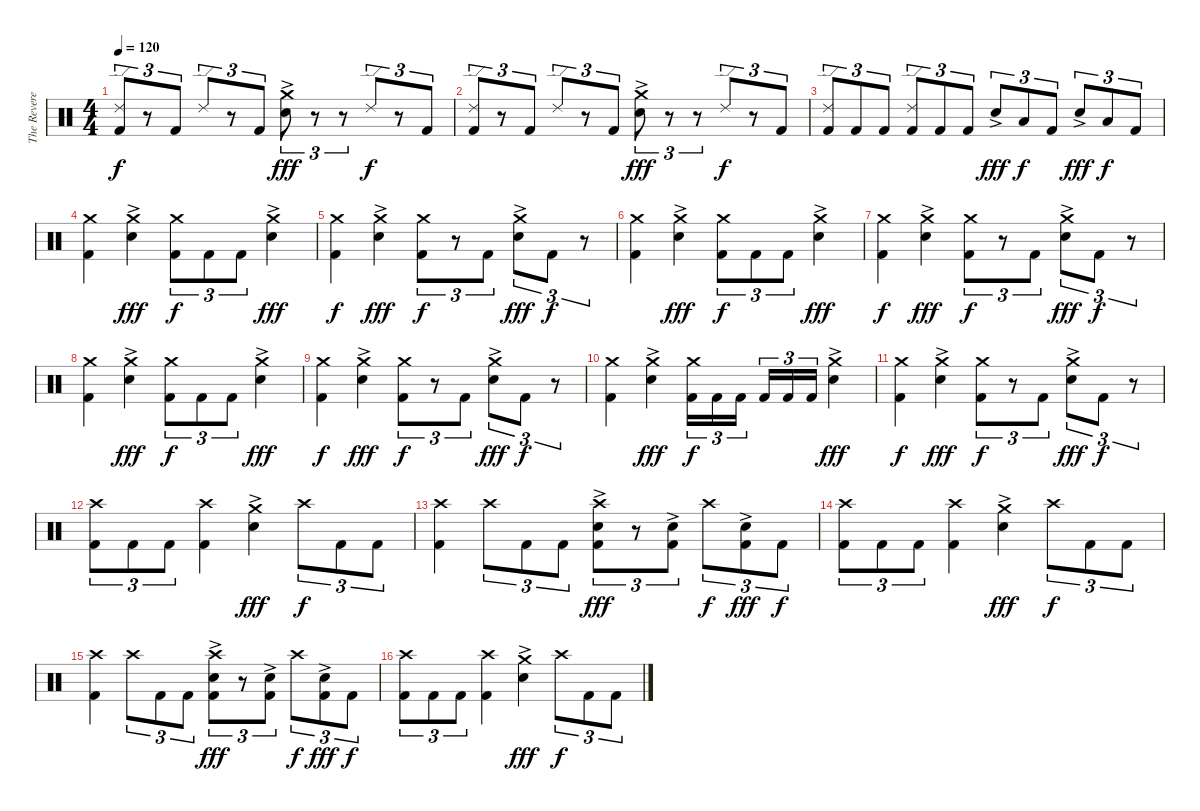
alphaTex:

\track ("The Reverend" "The Revere") {instrument percussion}
\staff {score}
\articulation defaults
\ts (4 4)
\tempo 120
\clef neutral
\ks c
("Ride (edge) 2" "Kick (hit) 2").8{tu (3 2) dy f} r.8{tu (3 2)} "Kick (hit) 2".8{tu (3 2)} "Ride (edge) 2".8{tu (3 2)} r.8{tu (3 2)} "Kick (hit) 2".8{tu (3 2)} ("Crash medium (hit)" "Electric Snare (hit)"{ac}).8{tu (3 2) dy fff} r.8{tu (3 2)} r.8{tu (3 2)} "Ride (edge) 2".8{tu (3 2) dy f} r.8{tu (3 2)} "Kick (hit) 2".8{tu (3 2)} |
("Ride (edge) 2" "Kick (hit) 2").8{tu (3 2)} r.8{tu (3 2)} "Kick (hit) 2".8{tu (3 2)} "Ride (edge) 2".8{tu (3 2)} r.8{tu (3 2)} "Kick (hit) 2".8{tu (3 2)} ("Crash medium (hit)" "Electric Snare (hit)"{ac}).8{tu (3 2) dy fff} r.8{tu (3 2)} r.8{tu (3 2)} "Ride (edge) 2".8{tu (3 2) dy f} r.8{tu (3 2)} "Kick (hit) 2".8{tu (3 2)} |
("Ride (edge) 2" "Kick (hit) 2").8{tu (3 2)} "Kick (hit) 2".8{tu (3 2)} "Kick (hit) 2".8{tu (3 2)} ("Ride (edge) 2" "Kick (hit) 2").8{tu (3 2)} "Kick (hit) 2".8{tu (3 2)} "Kick (hit) 2".8{tu (3 2)} "Electric Snare (hit)"{ac}.8{tu (3 2) dy fff} "Low Tom (hit)".8{tu (3 2) dy f} "Kick (hit) 2".8{tu (3 2)} "Electric Snare (hit)"{ac}.8{tu (3 2) dy fff} "Low Tom (hit)".8{tu (3 2) dy f} "Kick (hit) 2".8{tu (3 2)} |
("Crash medium (hit)" "Kick (hit) 2").4 ("Crash medium (hit)" "Electric Snare (hit)"{ac}).4{dy fff} ("Crash medium (hit)" "Kick (hit) 2").8{tu (3 2) dy f} "Kick (hit) 2".8{tu (3 2)} "Kick (hit) 2".8{tu (3 2)} ("Crash medium (hit)" "Electric Snare (hit)"{ac}).4{dy fff} |
("Crash medium (hit)" "Kick (hit) 2").4{dy f} ("Crash medium (hit)" "Electric Snare (hit)"{ac}).4{dy fff} ("Crash medium (hit)" "Kick (hit) 2").8{tu (3 2) dy f} r.8{tu (3 2)} "Kick (hit) 2".8{tu (3 2)} ("Crash medium (hit)" "Electric Snare (hit)"{ac}).8{tu (3 2) dy fff} "Kick (hit) 2".8{tu (3 2) dy f} r.8{tu (3 2)} |
("Crash medium (hit)" "Kick (hit) 2").4 ("Crash medium (hit)" "Electric Snare (hit)"{ac}).4{dy fff} ("Crash medium (hit)" "Kick (hit) 2").8{tu (3 2) dy f} "Kick (hit) 2".8{tu (3 2)} "Kick (hit) 2".8{tu (3 2)} ("Crash medium (hit)" "Electric Snare (hit)"{ac}).4{dy fff} |
("Crash medium (hit)" "Kick (hit) 2").4{dy f} ("Crash medium (hit)" "Electric Snare (hit)"{ac}).4{dy fff} ("Crash medium (hit)" "Kick (hit) 2").8{tu (3 2) dy f} r.8{tu (3 2)} "Kick (hit) 2".8{tu (3 2)} ("Crash medium (hit)" "Electric Snare (hit)"{ac}).8{tu (3 2) dy fff} "Kick (hit) 2".8{tu (3 2) dy f} r.8{tu (3 2)} |
("Crash medium (hit)" "Kick (hit) 2").4 ("Crash medium (hit)" "Electric Snare (hit)"{ac}).4{dy fff} ("Crash medium (hit)" "Kick (hit) 2").8{tu (3 2) dy f} "Kick (hit) 2".8{tu (3 2)} "Kick (hit) 2".8{tu (3 2)} ("Crash medium (hit)" "Electric Snare (hit)"{ac}).4{dy fff} |
("Crash medium (hit)" "Kick (hit) 2").4{dy f} ("Crash medium (hit)" "Electric Snare (hit)"{ac}).4{dy fff} ("Crash medium (hit)" "Kick (hit) 2").8{tu (3 2) dy f} r.8{tu (3 2)} "Kick (hit) 2".8{tu (3 2)} ("Crash medium (hit)" "Electric Snare (hit)"{ac}).8{tu (3 2) dy fff} "Kick (hit) 2".8{tu (3 2) dy f} r.8{tu (3 2)} |
("Crash medium (hit)" "Kick (hit) 2").4 ("Crash medium (hit)" "Electric Snare (hit)"{ac}).4{dy fff} ("Crash medium (hit)" "Kick (hit) 2").16{tu (3 2) dy f} "Kick (hit) 2".16{tu (3 2)} "Kick (hit) 2".16{tu (3 2) beam splitsecondary} "Kick (hit) 2".16{tu (3 2)} "Kick (hit) 2".16{tu (3 2)} "Kick (hit) 2".16{tu (3 2)} ("Crash medium (hit)" "Electric Snare (hit)"{ac}).4{dy fff} |
("Crash medium (hit)" "Kick (hit) 2").4{dy f} ("Crash medium (hit)" "Electric Snare (hit)"{ac}).4{dy fff} ("Crash medium (hit)" "Kick (hit) 2").8{tu (3 2) dy f} r.8{tu (3 2)} "Kick (hit) 2".8{tu (3 2)} ("Crash medium (hit)" "Electric Snare (hit)"{ac}).8{tu (3 2) dy fff} "Kick (hit) 2".8{tu (3 2) dy f} r.8{tu (3 2)} |
("Crash high (hit)" "Kick (hit) 2").8{tu (3 2)} "Kick (hit) 2".8{tu (3 2)} "Kick (hit) 2".8{tu (3 2)} ("Crash high (hit)" "Kick (hit) 2").4 ("Crash medium (hit)"{ac} "Electric Snare (hit)"{ac}).4{dy fff} "Crash high (hit)".8{tu (3 2) dy f} "Kick (hit) 2".8{tu (3 2)} "Kick (hit) 2".8{tu (3 2)} |
("Crash high (hit)" "Kick (hit) 2").4 "Crash high (hit)".8{tu (3 2)} "Kick (hit) 2".8{tu (3 2)} "Kick (hit) 2".8{tu (3 2)} ("Crash high (hit)" "Electric Snare (hit)"{ac} "Kick (hit) 2").8{tu (3 2) dy fff} r.8{tu (3 2)} ("Electric Snare (hit)"{ac} "Kick (hit) 2").8{tu (3 2)} "Crash high (hit)".8{tu (3 2) dy f} ("Electric Snare (hit)"{ac} "Kick (hit) 2").8{tu (3 2) dy fff} "Kick (hit) 2".8{tu (3 2) dy f} |
("Crash high (hit)" "Kick (hit) 2").8{tu (3 2)} "Kick (hit) 2".8{tu (3 2)} "Kick (hit) 2".8{tu (3 2)} ("Crash high (hit)" "Kick (hit) 2").4 ("Crash medium (hit)"{ac} "Electric Snare (hit)"{ac}).4{dy fff} "Crash high (hit)".8{tu (3 2) dy f} "Kick (hit) 2".8{tu (3 2)} "Kick (hit) 2".8{tu (3 2)} |
("Crash high (hit)" "Kick (hit) 2").4 "Crash high (hit)".8{tu (3 2)} "Kick (hit) 2".8{tu (3 2)} "Kick (hit) 2".8{tu (3 2)} ("Crash high (hit)" "Electric Snare (hit)"{ac} "Kick (hit) 2").8{tu (3 2) dy fff} r.8{tu (3 2)} ("Electric Snare (hit)"{ac} "Kick (hit) 2").8{tu (3 2)} "Crash high (hit)".8{tu (3 2) dy f} ("Electric Snare (hit)"{ac} "Kick (hit) 2").8{tu (3 2) dy fff} "Kick (hit) 2".8{tu (3 2) dy f} |
("Crash high (hit)" "Kick (hit) 2").8{tu (3 2)} "Kick (hit) 2".8{tu (3 2)} "Kick (hit) 2".8{tu (3 2)} ("Crash high (hit)" "Kick (hit) 2").4 ("Crash medium (hit)"{ac} "Electric Snare (hit)"{ac}).4{dy fff} "Crash high (hit)".8{tu (3 2) dy f} "Kick (hit) 2".8{tu (3 2)} "Kick (hit) 2".8{tu (3 2)}
